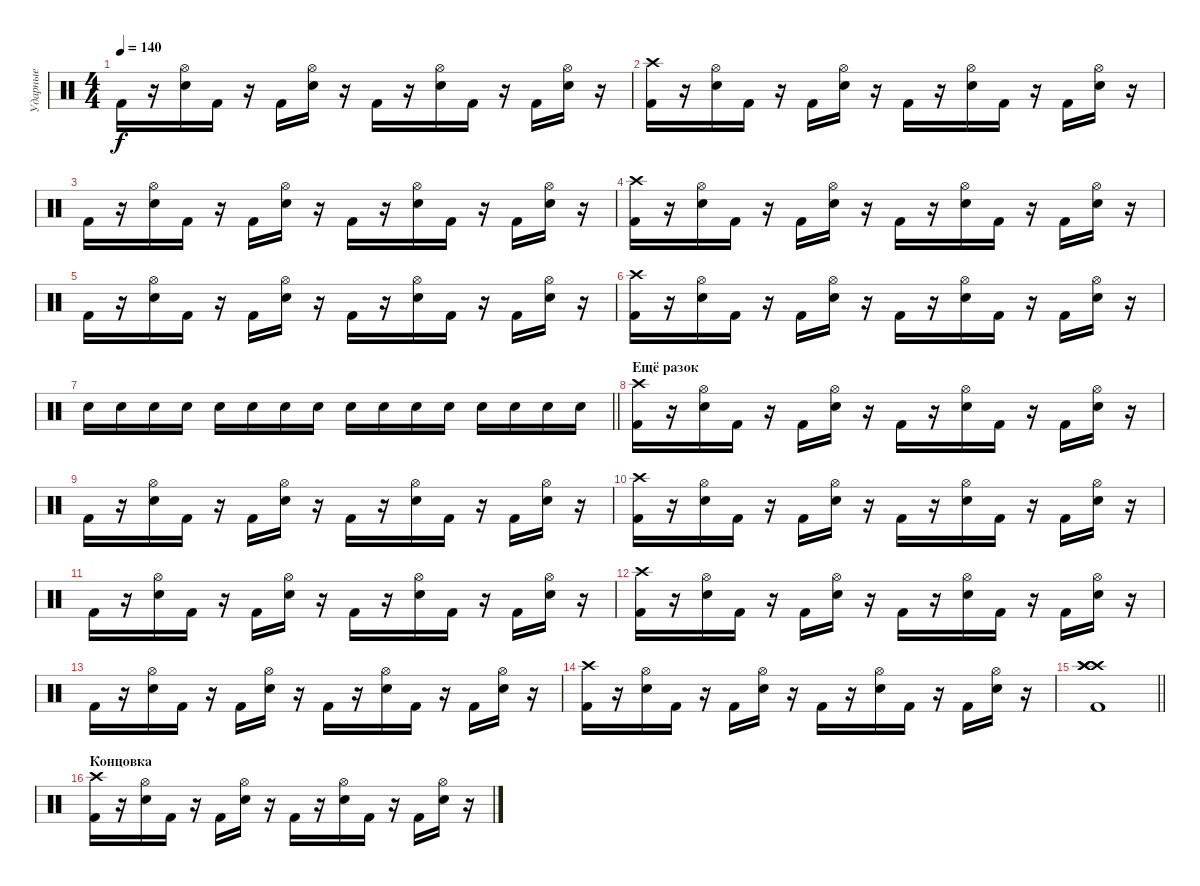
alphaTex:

\track ("Ударные" "Ударные") {instrument percussion}
\staff {score}
\articulation defaults
\ts (4 4)
\tempo 140
\clef neutral
\ks c "Kick (hit) 2".16{dy f}
r.16 ("Electric Snare (hit)" "Hi-Hat (open)").16 "Kick (hit) 2".16 r.16 "Kick (hit) 2".16 ("Electric Snare (hit)" "Hi-Hat (open)").16 r.16 "Kick (hit) 2".16 r.16 ("Electric Snare (hit)" "Hi-Hat (open)").16 "Kick (hit) 2".16 r.16 "Kick (hit) 2".16 ("Electric Snare (hit)" "Hi-Hat (open)").16 r.16 |
("Kick (hit) 2" "Crash high (hit)").16 r.16 ("Electric Snare (hit)" "Hi-Hat (open)").16 "Kick (hit) 2".16 r.16 "Kick (hit) 2".16 ("Electric Snare (hit)" "Hi-Hat (open)").16 r.16 "Kick (hit) 2".16 r.16 ("Electric Snare (hit)" "Hi-Hat (open)").16 "Kick (hit) 2".16 r.16 "Kick (hit) 2".16 ("Electric Snare (hit)" "Hi-Hat (open)").16 r.16 |
"Kick (hit) 2".16 r.16 ("Electric Snare (hit)" "Hi-Hat (open)").16 "Kick (hit) 2".16 r.16 "Kick (hit) 2".16 ("Electric Snare (hit)" "Hi-Hat (open)").16 r.16 "Kick (hit) 2".16 r.16 ("Electric Snare (hit)" "Hi-Hat (open)").16 "Kick (hit) 2".16 r.16 "Kick (hit) 2".16 ("Electric Snare (hit)" "Hi-Hat (open)").16 r.16 |
("Kick (hit) 2" "Crash high (hit)").16 r.16 ("Electric Snare (hit)" "Hi-Hat (open)").16 "Kick (hit) 2".16 r.16 "Kick (hit) 2".16 ("Electric Snare (hit)" "Hi-Hat (open)").16 r.16 "Kick (hit) 2".16 r.16 ("Electric Snare (hit)" "Hi-Hat (open)").16 "Kick (hit) 2".16 r.16 "Kick (hit) 2".16 ("Electric Snare (hit)" "Hi-Hat (open)").16 r.16 |
"Kick (hit) 2".16 r.16 ("Electric Snare (hit)" "Hi-Hat (open)").16 "Kick (hit) 2".16 r.16 "Kick (hit) 2".16 ("Electric Snare (hit)" "Hi-Hat (open)").16 r.16 "Kick (hit) 2".16 r.16 ("Electric Snare (hit)" "Hi-Hat (open)").16 "Kick (hit) 2".16 r.16 "Kick (hit) 2".16 ("Electric Snare (hit)" "Hi-Hat (open)").16 r.16 |
("Kick (hit) 2" "Crash high (hit)").16 r.16 ("Electric Snare (hit)" "Hi-Hat (open)").16 "Kick (hit) 2".16 r.16 "Kick (hit) 2".16 ("Electric Snare (hit)" "Hi-Hat (open)").16 r.16 "Kick (hit) 2".16 r.16 ("Electric Snare (hit)" "Hi-Hat (open)").16 "Kick (hit) 2".16 r.16 "Kick (hit) 2".16 ("Electric Snare (hit)" "Hi-Hat (open)").16 r.16 |
\barLineRight lightlight "Electric Snare (hit)".16 "Electric Snare (hit)".16 "Electric Snare (hit)".16 "Electric Snare (hit)".16 "Electric Snare (hit)".16 "Electric Snare (hit)".16 "Electric Snare (hit)".16 "Electric Snare (hit)".16 "Electric Snare (hit)".16 "Electric Snare (hit)".16 "Electric Snare (hit)".16 "Electric Snare (hit)".16 "Electric Snare (hit)".16 "Electric Snare (hit)".16 "Electric Snare (hit)".16 "Electric Snare (hit)".16
|
\section ("" "Ещё разок")
("Kick (hit) 2" "Crash high (hit)").16 r.16 ("Electric Snare (hit)" "Hi-Hat (open)").16 "Kick (hit) 2".16 r.16 "Kick (hit) 2".16 ("Electric Snare (hit)" "Hi-Hat (open)").16 r.16 "Kick (hit) 2".16 r.16 ("Electric Snare (hit)" "Hi-Hat (open)").16 "Kick (hit) 2".16 r.16 "Kick (hit) 2".16 ("Electric Snare (hit)" "Hi-Hat (open)").16 r.16 |
"Kick (hit) 2".16 r.16 ("Electric Snare (hit)" "Hi-Hat (open)").16 "Kick (hit) 2".16 r.16 "Kick (hit) 2".16 ("Electric Snare (hit)" "Hi-Hat (open)").16 r.16 "Kick (hit) 2".16 r.16 ("Electric Snare (hit)" "Hi-Hat (open)").16 "Kick (hit) 2".16 r.16 "Kick (hit) 2".16 ("Electric Snare (hit)" "Hi-Hat (open)").16 r.16 |
("Kick (hit) 2" "Crash high (hit)").16 r.16 ("Electric Snare (hit)" "Hi-Hat (open)").16 "Kick (hit) 2".16 r.16 "Kick (hit) 2".16 ("Electric Snare (hit)" "Hi-Hat (open)").16 r.16 "Kick (hit) 2".16 r.16 ("Electric Snare (hit)" "Hi-Hat (open)").16 "Kick (hit) 2".16 r.16 "Kick (hit) 2".16 ("Electric Snare (hit)" "Hi-Hat (open)").16 r.16 |
"Kick (hit) 2".16 r.16 ("Electric Snare (hit)" "Hi-Hat (open)").16 "Kick (hit) 2".16 r.16 "Kick (hit) 2".16 ("Electric Snare (hit)" "Hi-Hat (open)").16 r.16 "Kick (hit) 2".16 r.16 ("Electric Snare (hit)" "Hi-Hat (open)").16 "Kick (hit) 2".16 r.16 "Kick (hit) 2".16 ("Electric Snare (hit)" "Hi-Hat (open)").16 r.16 |
("Kick (hit) 2" "Crash high (hit)").16 r.16 ("Electric Snare (hit)" "Hi-Hat (open)").16 "Kick (hit) 2".16 r.16 "Kick (hit) 2".16 ("Electric Snare (hit)" "Hi-Hat (open)").16 r.16 "Kick (hit) 2".16 r.16 ("Electric Snare (hit)" "Hi-Hat (open)").16 "Kick (hit) 2".16 r.16 "Kick (hit) 2".16 ("Electric Snare (hit)" "Hi-Hat (open)").16 r.16 |
"Kick (hit) 2".16 r.16 ("Electric Snare (hit)" "Hi-Hat (open)").16 "Kick (hit) 2".16 r.16 "Kick (hit) 2".16 ("Electric Snare (hit)" "Hi-Hat (open)").16 r.16 "Kick (hit) 2".16 r.16 ("Electric Snare (hit)" "Hi-Hat (open)").16 "Kick (hit) 2".16 r.16 "Kick (hit) 2".16 ("Electric Snare (hit)" "Hi-Hat (open)").16 r.16 |
("Kick (hit) 2" "Crash high (hit)").16 r.16 ("Electric Snare (hit)" "Hi-Hat (open)").16 "Kick (hit) 2".16 r.16 "Kick (hit) 2".16 ("Electric Snare (hit)" "Hi-Hat (open)").16 r.16 "Kick (hit) 2".16 r.16 ("Electric Snare (hit)" "Hi-Hat (open)").16 "Kick (hit) 2".16 r.16 "Kick (hit) 2".16 ("Electric Snare (hit)" "Hi-Hat (open)").16 r.16 |
\barLineRight lightlight
("Kick (hit) 2" "Crash high (hit)" "Crash high (hit)" "Crash high (hit)").1 |
\section ("" "Концовка")
("Kick (hit) 2" "Crash high (hit)").16 r.16 ("Electric Snare (hit)" "Hi-Hat (open)").16 "Kick (hit) 2".16 r.16 "Kick (hit) 2".16 ("Electric Snare (hit)" "Hi-Hat (open)").16 r.16 "Kick (hit) 2".16 r.16 ("Electric Snare (hit)" "Hi-Hat (open)").16 "Kick (hit) 2".16 r.16 "Kick (hit) 2".16 ("Electric Snare (hit)" "Hi-Hat (open)").16 r.16
